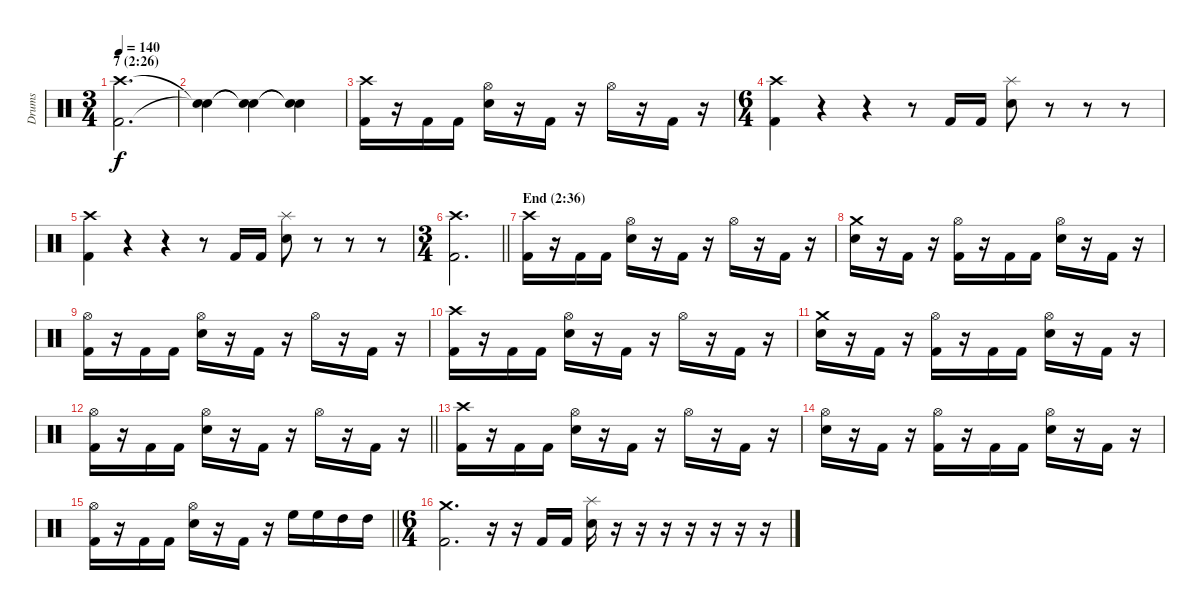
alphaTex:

\track ("Drums" "Drums") {instrument percussion}
\staff {score}
\articulation defaults
\ts (3 4)
\section ("" "7 (2:26)")
\tempo 140
\clef neutral
\ks c
("Crash high (hit)" "Kick (hit) 2").2{d dy f} |
("Snare (hit)"{t} "Snare (hit)"{t}).4 ("Snare (hit)"{t} "Snare (hit)"{t}).4 ("Snare (hit)"{t} "Snare (hit)"{t}).4 |
("Crash high (hit)" "Kick (hit) 2").16 r.16 "Kick (hit) 2".16 "Kick (hit) 2".16 ("Hi-Hat (open)" "Snare (hit) 2").16 r.16 "Kick (hit) 2".16 r.16 "Hi-Hat (open)".16 r.16 "Kick (hit) 2".16 r.16 |
\ts (6 4)
("Crash high (hit)" "Kick (hit) 2").4 r.4 r.4 r.8 "Kick (hit) 2".16 "Kick (hit) 2".16 ("Splash (hit)" "Snare (hit) 2").8 r.8 r.8 r.8 |
("Crash high (hit)" "Kick (hit) 2").4 r.4 r.4 r.8 "Kick (hit) 2".16 "Kick (hit) 2".16 ("Splash (hit)" "Snare (hit) 2").8 r.8 r.8 r.8 |
\ts (3 4)
\barLineRight lightlight
("Crash high (hit)" "Kick (hit) 2").2{d} |
\section ("" "End (2:36)")
("Crash high (hit)" "Kick (hit) 2").16 r.16 "Kick (hit) 2".16 "Kick (hit) 2".16 ("Hi-Hat (open)" "Snare (hit) 2").16 r.16 "Kick (hit) 2".16 r.16 "Hi-Hat (open)".16 r.16 "Kick (hit) 2".16 r.16 |
("Crash medium (hit)" "Snare (hit) 2").16 r.16 "Kick (hit) 2".16 r.16 ("Hi-Hat (open)" "Kick (hit) 2").16 r.16 "Kick (hit) 2".16 "Kick (hit) 2".16 ("Hi-Hat (open)" "Snare (hit) 2").16 r.16 "Kick (hit) 2".16 r.16 |
("Hi-Hat (open)" "Kick (hit) 2").16 r.16 "Kick (hit) 2".16 "Kick (hit) 2".16 ("Hi-Hat (open)" "Snare (hit) 2").16 r.16 "Kick (hit) 2".16 r.16 "Hi-Hat (open)".16 r.16 "Kick (hit) 2".16 r.16 |
("Crash high (hit)" "Kick (hit) 2").16 r.16 "Kick (hit) 2".16 "Kick (hit) 2".16 ("Hi-Hat (open)" "Snare (hit) 2").16 r.16 "Kick (hit) 2".16 r.16 "Hi-Hat (open)".16 r.16 "Kick (hit) 2".16 r.16 |
("Crash medium (hit)" "Snare (hit) 2").16 r.16 "Kick (hit) 2".16 r.16 ("Hi-Hat (open)" "Kick (hit) 2").16 r.16 "Kick (hit) 2".16 "Kick (hit) 2".16 ("Hi-Hat (open)" "Snare (hit) 2").16 r.16 "Kick (hit) 2".16 r.16 |
\barLineRight lightlight
("Hi-Hat (open)" "Kick (hit) 2").16 r.16 "Kick (hit) 2".16 "Kick (hit) 2".16 ("Hi-Hat (open)" "Snare (hit) 2").16 r.16 "Kick (hit) 2".16 r.16 "Hi-Hat (open)".16 r.16 "Kick (hit) 2".16 r.16 |
\section ("" "")
("Crash high (hit)" "Kick (hit) 2").16 r.16 "Kick (hit) 2".16 "Kick (hit) 2".16 ("Hi-Hat (open)" "Snare (hit) 2").16 r.16 "Kick (hit) 2".16 r.16 "Hi-Hat (open)".16 r.16 "Kick (hit) 2".16 r.16 |
("Hi-Hat (open)" "Snare (hit) 2").16 r.16 "Kick (hit) 2".16 r.16 ("Hi-Hat (open)" "Kick (hit) 2").16 r.16 "Kick (hit) 2".16 "Kick (hit) 2".16 ("Hi-Hat (open)" "Snare (hit) 2").16 r.16 "Kick (hit) 2".16 r.16 |
\barLineRight lightlight
("Hi-Hat (open)" "Kick (hit) 2").16 r.16 "Kick (hit) 2".16 "Kick (hit) 2".16 ("Hi-Hat (open)" "Snare (hit) 2").16 r.16 "Kick (hit) 2".16 r.16 "High Floor Tom (hit)".16 "High Floor Tom (hit)".16 "High Tom (hit)".16 "High Tom (hit)".16 |
\ts (6 4)
("Crash medium (hit)" "Kick (hit) 2").2{d} r.16 r.16 "Kick (hit) 2".16 "Kick (hit) 2".16 ("Splash (hit)" "Snare (hit) 2").16 r.16 r.16 r.16 r.16 r.16 r.16 r.16
